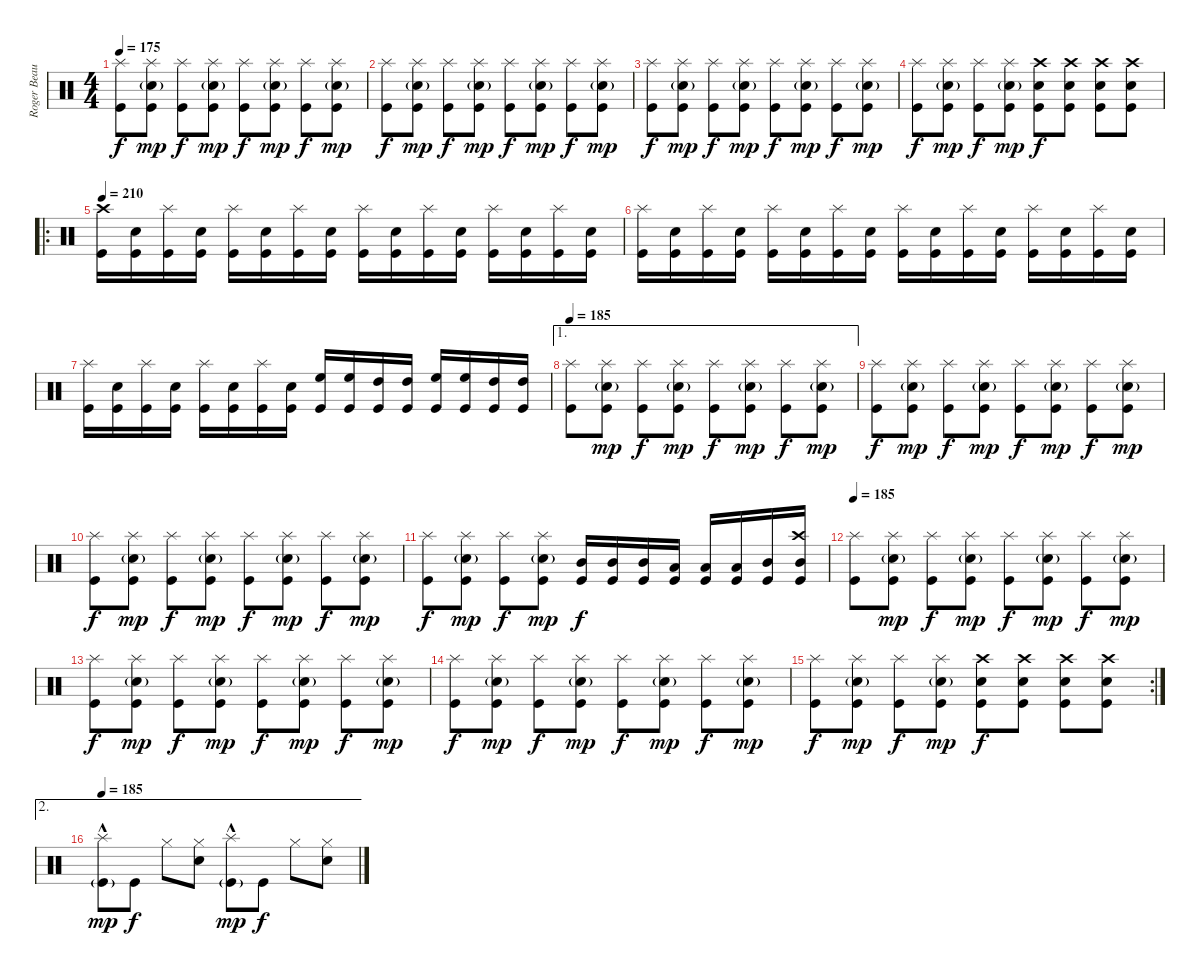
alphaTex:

\track ("Roger Beaujard - Drum Programming  Sam I" "Roger Beau") {instrument percussion}
\staff {score}
\articulation defaults
\ts (4 4)
\tempo 175
\clef neutral
\ks c
("Splash (hit)" "Kick (hit)").8{dy f} ("Splash (hit)" "Electric Snare (hit)"{g} "Kick (hit)").8{dy mp} ("Splash (hit)" "Kick (hit)").8{dy f} ("Splash (hit)" "Electric Snare (hit)"{g} "Kick (hit)").8{dy mp} ("Splash (hit)" "Kick (hit)").8{dy f} ("Splash (hit)" "Electric Snare (hit)"{g} "Kick (hit)").8{dy mp} ("Splash (hit)" "Kick (hit)").8{dy f} ("Splash (hit)" "Electric Snare (hit)"{g} "Kick (hit)").8{dy mp} |
("Splash (hit)" "Kick (hit)").8{dy f} ("Splash (hit)" "Electric Snare (hit)"{g} "Kick (hit)").8{dy mp} ("Splash (hit)" "Kick (hit)").8{dy f} ("Splash (hit)" "Electric Snare (hit)"{g} "Kick (hit)").8{dy mp} ("Splash (hit)" "Kick (hit)").8{dy f} ("Splash (hit)" "Electric Snare (hit)"{g} "Kick (hit)").8{dy mp} ("Splash (hit)" "Kick (hit)").8{dy f} ("Splash (hit)" "Electric Snare (hit)"{g} "Kick (hit)").8{dy mp} |
("Splash (hit)" "Kick (hit)").8{dy f} ("Splash (hit)" "Electric Snare (hit)"{g} "Kick (hit)").8{dy mp} ("Splash (hit)" "Kick (hit)").8{dy f} ("Splash (hit)" "Electric Snare (hit)"{g} "Kick (hit)").8{dy mp} ("Splash (hit)" "Kick (hit)").8{dy f} ("Splash (hit)" "Electric Snare (hit)"{g} "Kick (hit)").8{dy mp} ("Splash (hit)" "Kick (hit)").8{dy f} ("Splash (hit)" "Electric Snare (hit)"{g} "Kick (hit)").8{dy mp} |
("Splash (hit)" "Kick (hit)").8{dy f} ("Splash (hit)" "Electric Snare (hit)"{g} "Kick (hit)").8{dy mp} ("Splash (hit)" "Kick (hit)").8{dy f} ("Splash (hit)" "Electric Snare (hit)"{g} "Kick (hit)").8{dy mp} ("Crash high (hit)" "Electric Snare (hit)" "Kick (hit)").8{dy f} ("Crash high (hit)" "Electric Snare (hit)" "Kick (hit)").8 ("Crash high (hit)" "Electric Snare (hit)" "Kick (hit)").8 ("Crash high (hit)" "Electric Snare (hit)" "Kick (hit)").8 |
\ro
\tempo 210
("Crash high (hit)" "Kick (hit)").16 ("Electric Snare (hit)" "Kick (hit)").16 ("Splash (hit)" "Kick (hit)").16 ("Electric Snare (hit)" "Kick (hit)").16 ("Splash (hit)" "Kick (hit)").16 ("Electric Snare (hit)" "Kick (hit)").16 ("Splash (hit)" "Kick (hit)").16 ("Electric Snare (hit)" "Kick (hit)").16 ("Splash (hit)" "Kick (hit)").16 ("Electric Snare (hit)" "Kick (hit)").16 ("Splash (hit)" "Kick (hit)").16 ("Electric Snare (hit)" "Kick (hit)").16 ("Splash (hit)" "Kick (hit)").16 ("Electric Snare (hit)" "Kick (hit)").16 ("Splash (hit)" "Kick (hit)").16 ("Electric Snare (hit)" "Kick (hit)").16 |
("Splash (hit)" "Kick (hit)").16 ("Electric Snare (hit)" "Kick (hit)").16 ("Splash (hit)" "Kick (hit)").16 ("Electric Snare (hit)" "Kick (hit)").16 ("Splash (hit)" "Kick (hit)").16 ("Electric Snare (hit)" "Kick (hit)").16 ("Splash (hit)" "Kick (hit)").16 ("Electric Snare (hit)" "Kick (hit)").16 ("Splash (hit)" "Kick (hit)").16 ("Electric Snare (hit)" "Kick (hit)").16 ("Splash (hit)" "Kick (hit)").16 ("Electric Snare (hit)" "Kick (hit)").16 ("Splash (hit)" "Kick (hit)").16 ("Electric Snare (hit)" "Kick (hit)").16 ("Splash (hit)" "Kick (hit)").16 ("Electric Snare (hit)" "Kick (hit)").16 |
("Splash (hit)" "Kick (hit)").16 ("Electric Snare (hit)" "Kick (hit)").16 ("Splash (hit)" "Kick (hit)").16 ("Electric Snare (hit)" "Kick (hit)").16 ("Splash (hit)" "Kick (hit)").16 ("Electric Snare (hit)" "Kick (hit)").16 ("Splash (hit)" "Kick (hit)").16 ("Electric Snare (hit)" "Kick (hit)").16 ("High Floor Tom (hit)" "Kick (hit)").16 ("High Floor Tom (hit)" "Kick (hit)").16 ("High Tom (hit)" "Kick (hit)").16 ("High Tom (hit)" "Kick (hit)").16 ("High Floor Tom (hit)" "Kick (hit)").16 ("High Floor Tom (hit)" "Kick (hit)").16 ("High Tom (hit)" "Kick (hit)").16 ("High Tom (hit)" "Kick (hit)").16 |
\ae 1
\tempo 185
("Splash (hit)" "Kick (hit)").8 ("Splash (hit)" "Electric Snare (hit)"{g} "Kick (hit)").8{dy mp} ("Splash (hit)" "Kick (hit)").8{dy f} ("Splash (hit)" "Electric Snare (hit)"{g} "Kick (hit)").8{dy mp} ("Splash (hit)" "Kick (hit)").8{dy f} ("Splash (hit)" "Electric Snare (hit)"{g} "Kick (hit)").8{dy mp} ("Splash (hit)" "Kick (hit)").8{dy f} ("Splash (hit)" "Electric Snare (hit)"{g} "Kick (hit)").8{dy mp} |
("Splash (hit)" "Kick (hit)").8{dy f} ("Splash (hit)" "Electric Snare (hit)"{g} "Kick (hit)").8{dy mp} ("Splash (hit)" "Kick (hit)").8{dy f} ("Splash (hit)" "Electric Snare (hit)"{g} "Kick (hit)").8{dy mp} ("Splash (hit)" "Kick (hit)").8{dy f} ("Splash (hit)" "Electric Snare (hit)"{g} "Kick (hit)").8{dy mp} ("Splash (hit)" "Kick (hit)").8{dy f} ("Splash (hit)" "Electric Snare (hit)"{g} "Kick (hit)").8{dy mp} |
("Splash (hit)" "Kick (hit)").8{dy f} ("Splash (hit)" "Electric Snare (hit)"{g} "Kick (hit)").8{dy mp} ("Splash (hit)" "Kick (hit)").8{dy f} ("Splash (hit)" "Electric Snare (hit)"{g} "Kick (hit)").8{dy mp} ("Splash (hit)" "Kick (hit)").8{dy f} ("Splash (hit)" "Electric Snare (hit)"{g} "Kick (hit)").8{dy mp} ("Splash (hit)" "Kick (hit)").8{dy f} ("Splash (hit)" "Electric Snare (hit)"{g} "Kick (hit)").8{dy mp} |
("Splash (hit)" "Kick (hit)").8{dy f} ("Splash (hit)" "Electric Snare (hit)"{g} "Kick (hit)").8{dy mp} ("Splash (hit)" "Kick (hit)").8{dy f} ("Splash (hit)" "Electric Snare (hit)"{g} "Kick (hit)").8{dy mp} ("Mid Tom (hit)" "Kick (hit)").16{dy f} ("Mid Tom (hit)" "Kick (hit)").16 ("Mid Tom (hit)" "Kick (hit)").16 ("Low Tom (hit)" "Kick (hit)").16 ("Low Tom (hit)" "Kick (hit)").16 ("Low Tom (hit)" "Kick (hit)").16 ("Mid Tom (hit)" "Kick (hit)").16 ("Crash high (hit)" "Mid Tom (hit)" "Kick (hit)").16 |
\tempo 185
("Splash (hit)" "Kick (hit)").8 ("Splash (hit)" "Electric Snare (hit)"{g} "Kick (hit)").8{dy mp} ("Splash (hit)" "Kick (hit)").8{dy f} ("Splash (hit)" "Electric Snare (hit)"{g} "Kick (hit)").8{dy mp} ("Splash (hit)" "Kick (hit)").8{dy f} ("Splash (hit)" "Electric Snare (hit)"{g} "Kick (hit)").8{dy mp} ("Splash (hit)" "Kick (hit)").8{dy f} ("Splash (hit)" "Electric Snare (hit)"{g} "Kick (hit)").8{dy mp} |
("Splash (hit)" "Kick (hit)").8{dy f} ("Splash (hit)" "Electric Snare (hit)"{g} "Kick (hit)").8{dy mp} ("Splash (hit)" "Kick (hit)").8{dy f} ("Splash (hit)" "Electric Snare (hit)"{g} "Kick (hit)").8{dy mp} ("Splash (hit)" "Kick (hit)").8{dy f} ("Splash (hit)" "Electric Snare (hit)"{g} "Kick (hit)").8{dy mp} ("Splash (hit)" "Kick (hit)").8{dy f} ("Splash (hit)" "Electric Snare (hit)"{g} "Kick (hit)").8{dy mp} |
("Splash (hit)" "Kick (hit)").8{dy f} ("Splash (hit)" "Electric Snare (hit)"{g} "Kick (hit)").8{dy mp} ("Splash (hit)" "Kick (hit)").8{dy f} ("Splash (hit)" "Electric Snare (hit)"{g} "Kick (hit)").8{dy mp} ("Splash (hit)" "Kick (hit)").8{dy f} ("Splash (hit)" "Electric Snare (hit)"{g} "Kick (hit)").8{dy mp} ("Splash (hit)" "Kick (hit)").8{dy f} ("Splash (hit)" "Electric Snare (hit)"{g} "Kick (hit)").8{dy mp} |
\rc 2
("Splash (hit)" "Kick (hit)").8{dy f} ("Splash (hit)" "Electric Snare (hit)"{g} "Kick (hit)").8{dy mp} ("Splash (hit)" "Kick (hit)").8{dy f} ("Splash (hit)" "Electric Snare (hit)"{g} "Kick (hit)").8{dy mp} ("Crash high (hit)" "Electric Snare (hit)" "Kick (hit)").8{dy f} ("Crash high (hit)" "Electric Snare (hit)" "Kick (hit)").8 ("Crash high (hit)" "Electric Snare (hit)" "Kick (hit)").8 ("Crash high (hit)" "Electric Snare (hit)" "Kick (hit)").8 |
\ae 2
\tempo 185
("Splash (hit)"{hac} "Kick (hit)"{g}).8{dy mp} "Kick (hit)".8{dy f} "Hi-Hat (closed)".8 ("Hi-Hat (closed)" "Snare (hit) 2").8 ("Splash (hit)"{hac} "Kick (hit)"{g}).8{dy mp} "Kick (hit)".8{dy f} "Hi-Hat (closed)".8 ("Hi-Hat (closed)" "Snare (hit) 2").8
